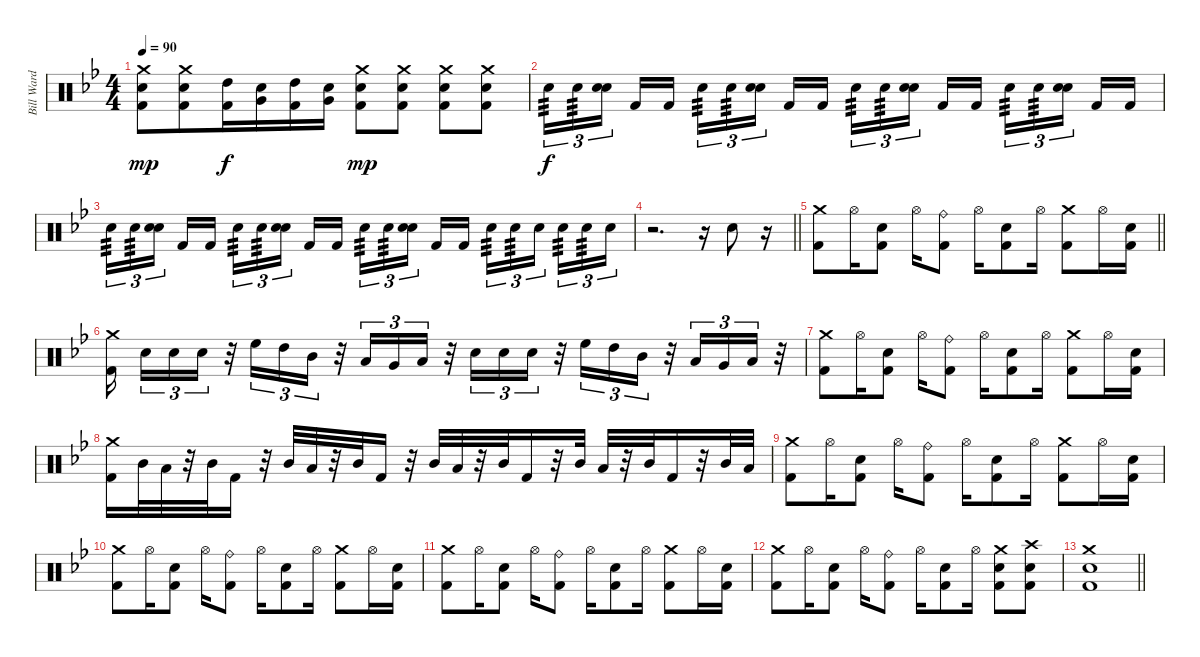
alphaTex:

\track ("Bill Ward" "Bill Ward") {instrument percussion}
\staff {score}
\articulation defaults
\ts (4 4)
\tempo 90
\clef neutral
\ks bb
("Crash medium (hit)" "Electric Snare (hit)" "Kick (hit) 2").8{dy mp} ("Crash medium (hit)" "Electric Snare (hit)" "Kick (hit) 2").8{beam merge} ("High Tom (hit)" "Kick (hit) 2").16{dy f} ("Very Low Tom (hit)" "Electric Snare (hit)").16{beam merge} ("High Tom (hit)" "Kick (hit) 2").16 ("Very Low Tom (hit)" "Electric Snare (hit)").16 ("Crash medium (hit)" "Electric Snare (hit)" "Kick (hit) 2").8{dy mp} ("Crash medium (hit)" "Electric Snare (hit)" "Kick (hit) 2").8 ("Crash medium (hit)" "Electric Snare (hit)" "Kick (hit) 2").8 ("Crash medium (hit)" "Electric Snare (hit)" "Kick (hit) 2").8 |
"Snare (hit) 2".16{tu (3 2) tp 3 dy f} "Snare (hit) 2".16{tu (3 2) tp 3} ("Electric Snare (hit)" "Snare (hit) 2").16{tu (3 2) beam splitsecondary} "Kick (hit) 2".16 "Kick (hit) 2".16 "Snare (hit) 2".16{tu (3 2) tp 3} "Snare (hit) 2".16{tu (3 2) tp 3} ("Electric Snare (hit)" "Snare (hit) 2").16{tu (3 2) beam splitsecondary} "Kick (hit) 2".16 "Kick (hit) 2".16 "Snare (hit) 2".16{tu (3 2) tp 3} "Snare (hit) 2".16{tu (3 2) tp 3} ("Electric Snare (hit)" "Snare (hit) 2").16{tu (3 2) beam splitsecondary} "Kick (hit) 2".16 "Kick (hit) 2".16 "Snare (hit) 2".16{tu (3 2) tp 3} "Snare (hit) 2".16{tu (3 2) tp 3} ("Electric Snare (hit)" "Snare (hit) 2").16{tu (3 2) beam splitsecondary} "Kick (hit) 2".16 "Kick (hit) 2".16 |
"Snare (hit) 2".16{tu (3 2) tp 3} "Snare (hit) 2".16{tu (3 2) tp 3} ("Electric Snare (hit)" "Snare (hit) 2").16{tu (3 2) beam splitsecondary} "Kick (hit) 2".16 "Kick (hit) 2".16 "Snare (hit) 2".16{tu (3 2) tp 3} "Snare (hit) 2".16{tu (3 2) tp 3} ("Electric Snare (hit)" "Snare (hit) 2").16{tu (3 2) beam splitsecondary} "Kick (hit) 2".16 "Kick (hit) 2".16 "Snare (hit) 2".16{tu (3 2) tp 3} "Snare (hit) 2".16{tu (3 2) tp 3} ("Electric Snare (hit)" "Snare (hit) 2").16{tu (3 2) beam splitsecondary} "Kick (hit) 2".16 "Kick (hit) 2".16 "Electric Snare (hit)".16{tu (3 2) tp 3} "Electric Snare (hit)".16{tu (3 2) tp 3} "Electric Snare (hit)".16{tu (3 2) beam splitsecondary} "Electric Snare (hit)".16{tu (3 2) tp 3} "Electric Snare (hit)".16{tu (3 2) tp 3} "Electric Snare (hit)".16{tu (3 2)} |
\barLineRight lightlight
r.2{d} r.16 "Snare (hit) 2".8 r.16 |
\barLineRight lightlight
("Crash medium (hit)" "Kick (hit) 2").8 "Hi-Hat (open)".16 ("Electric Snare (hit)" "Kick (hit) 2").8 "Hi-Hat (open)".16 ("Ride (bell)" "Kick (hit) 2").8 "Hi-Hat (open)".16 ("Electric Snare (hit)" "Kick (hit) 2").8 "Hi-Hat (open)".16 ("Crash medium (hit)" "Kick (hit) 2").8 "Hi-Hat (open)".16 ("Electric Snare (hit)" "Kick (hit) 2").16 |
("Crash medium (hit)" "Kick (hit) 2").16{beam splitsecondary} "Electric Snare (hit)".16{tu (3 2)} "Electric Snare (hit)".16{tu (3 2)} "Electric Snare (hit)".16{tu (3 2)} r.32 "High Floor Tom (hit)".16{tu (3 2)} "High Tom (hit)".16{tu (3 2)} "Mid Tom (hit)".16{tu (3 2)} r.32 "Low Tom (hit)".16{tu (3 2)} "Very Low Tom (hit)".16{tu (3 2)} "Low Floor Tom (hit)".16{tu (3 2)} r.32 "Electric Snare (hit)".16{tu (3 2)} "Electric Snare (hit)".16{tu (3 2)} "Electric Snare (hit)".16{tu (3 2)} r.32 "High Floor Tom (hit)".16{tu (3 2)} "High Tom (hit)".16{tu (3 2)} "Mid Tom (hit)".16{tu (3 2)} r.32 "Low Tom (hit)".16{tu (3 2)} "Very Low Tom (hit)".16{tu (3 2)} "Low Floor Tom (hit)".16{tu (3 2)} r.32 |
("Crash medium (hit)" "Kick (hit) 2").8 "Hi-Hat (open)".16 ("Electric Snare (hit)" "Kick (hit) 2").8 "Hi-Hat (open)".16 ("Ride (bell)" "Kick (hit) 2").8 "Hi-Hat (open)".16 ("Electric Snare (hit)" "Kick (hit) 2").8 "Hi-Hat (open)".16 ("Crash medium (hit)" "Kick (hit) 2").8 "Hi-Hat (open)".16 ("Electric Snare (hit)" "Kick (hit) 2").16 |
("Crash medium (hit)" "Kick (hit) 2").16 "Mid Tom (hit)".32 "Low Tom (hit)".32 r.32 "Mid Tom (hit)".32 "Kick (hit) 2".16 r.32 "Mid Tom (hit)".32 "Low Tom (hit)".32 r.32 "Mid Tom (hit)".32 "Kick (hit) 2".16 r.32 "Mid Tom (hit)".32 "Low Tom (hit)".32 r.32 "Mid Tom (hit)".32 "Kick (hit) 2".16 r.32 "Mid Tom (hit)".32 "Low Tom (hit)".32 r.32 "Mid Tom (hit)".32 "Kick (hit) 2".16 r.32 "Mid Tom (hit)".32 "Low Tom (hit)".32 |
("Crash medium (hit)" "Kick (hit) 2").8 "Hi-Hat (open)".16 ("Electric Snare (hit)" "Kick (hit) 2").8 "Hi-Hat (open)".16 ("Ride (bell)" "Kick (hit) 2").8 "Hi-Hat (open)".16 ("Electric Snare (hit)" "Kick (hit) 2").8 "Hi-Hat (open)".16 ("Crash medium (hit)" "Kick (hit) 2").8 "Hi-Hat (open)".16 ("Electric Snare (hit)" "Kick (hit) 2").16 |
("Crash medium (hit)" "Kick (hit) 2").8 "Hi-Hat (open)".16 ("Electric Snare (hit)" "Kick (hit) 2").8 "Hi-Hat (open)".16 ("Ride (bell)" "Kick (hit) 2").8 "Hi-Hat (open)".16 ("Electric Snare (hit)" "Kick (hit) 2").8 "Hi-Hat (open)".16 ("Crash medium (hit)" "Kick (hit) 2").8 "Hi-Hat (open)".16 ("Electric Snare (hit)" "Kick (hit) 2").16 |
("Crash medium (hit)" "Kick (hit) 2").8 "Hi-Hat (open)".16 ("Electric Snare (hit)" "Kick (hit) 2").8 "Hi-Hat (open)".16 ("Ride (bell)" "Kick (hit) 2").8 "Hi-Hat (open)".16 ("Electric Snare (hit)" "Kick (hit) 2").8 "Hi-Hat (open)".16 ("Crash medium (hit)" "Kick (hit) 2").8 "Hi-Hat (open)".16 ("Electric Snare (hit)" "Kick (hit) 2").16 |
("Crash medium (hit)" "Kick (hit) 2").8 "Hi-Hat (open)".16 ("Electric Snare (hit)" "Kick (hit) 2").8 "Hi-Hat (open)".16 ("Ride (bell)" "Kick (hit) 2").8 "Hi-Hat (open)".16 ("Electric Snare (hit)" "Kick (hit) 2").8 "Hi-Hat (open)".16 ("Crash medium (hit)" "Snare (hit) 2" "Kick (hit) 2").8 ("Crash high (hit)" "Snare (hit) 2" "Kick (hit) 2").8 |
\barLineRight lightlight
("Crash medium (hit)" "Snare (hit) 2" "Kick (hit) 2").1
